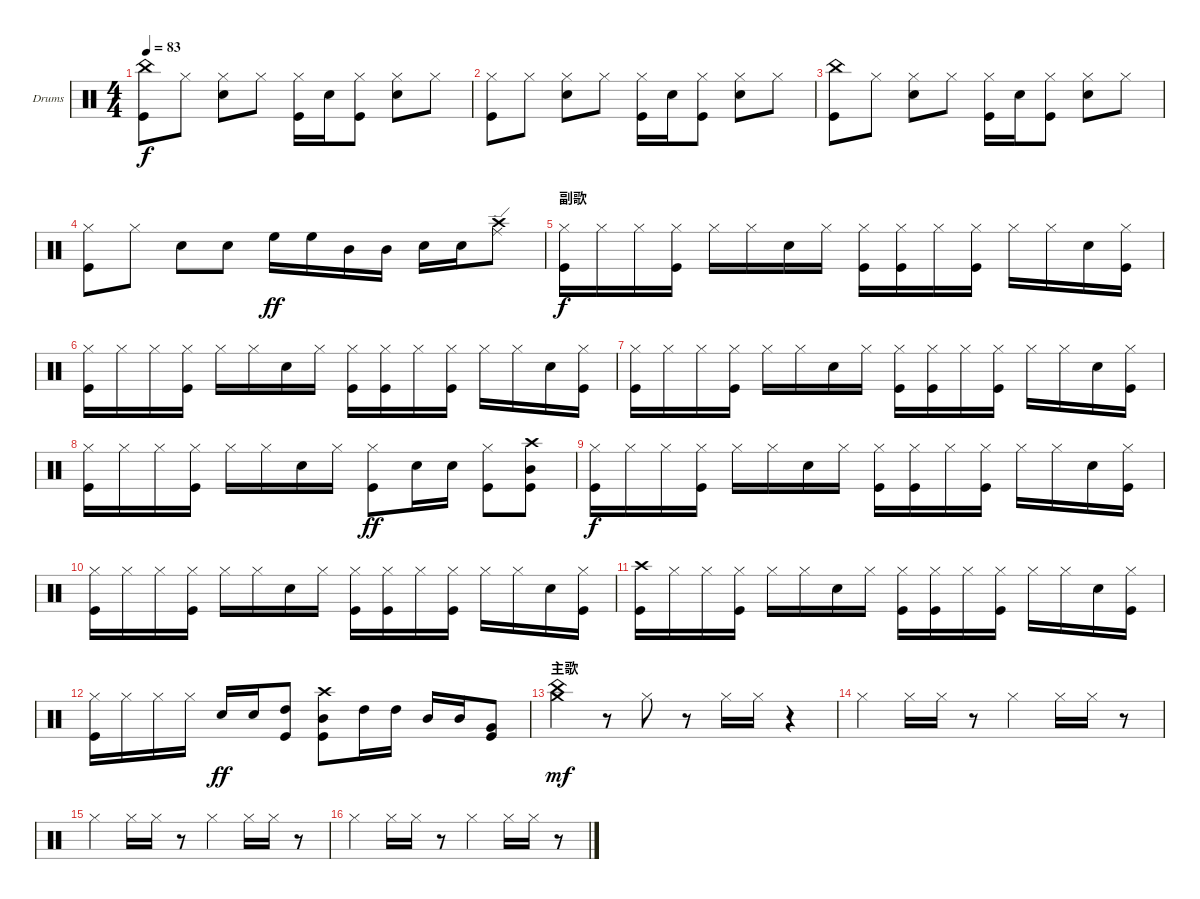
\bracketExtendMode groupsimilarinstruments
\firstSystemTrackNameOrientation horizontal
\otherSystemsTrackNameOrientation horizontal
\track ("Drumkit" "Drums") {instrument percussion}
\staff {score}
\articulation defaults
\ts (4 4)
\tempo 83
\clef neutral
\ks c
("Kick (hit)" "China (hit)").8{dy f} "Hi-Hat (closed)".8 ("Snare (hit) 2" "Hi-Hat (closed)").8 "Hi-Hat (closed)".8 ("Kick (hit)" "Hi-Hat (closed)").16 "Snare (hit) 2".16 ("Kick (hit)" "Hi-Hat (closed)").8 ("Snare (hit) 2" "Hi-Hat (closed)").8 "Hi-Hat (closed)".8 |
("Kick (hit)" "Hi-Hat (closed)").8 "Hi-Hat (closed)".8 ("Snare (hit) 2" "Hi-Hat (closed)").8 "Hi-Hat (closed)".8 ("Kick (hit)" "Hi-Hat (closed)").16 "Snare (hit) 2".16 ("Kick (hit)" "Hi-Hat (closed)").8 ("Snare (hit) 2" "Hi-Hat (closed)").8 "Hi-Hat (closed)".8 |
("Kick (hit)" "China (hit)").8 "Hi-Hat (closed)".8 ("Snare (hit) 2" "Hi-Hat (closed)").8 "Hi-Hat (closed)".8 ("Kick (hit)" "Hi-Hat (closed)").16 "Snare (hit) 2".16 ("Kick (hit)" "Hi-Hat (closed)").8 ("Snare (hit) 2" "Hi-Hat (closed)").8 "Hi-Hat (closed)".8 |
("Kick (hit)" "Hi-Hat (closed)").8 "Hi-Hat (closed)".8 "Snare (hit) 2".8 "Snare (hit) 2".8 "High Floor Tom (hit)".16{dy ff} "High Floor Tom (hit)".16 "Mid Tom (hit)".16 "Mid Tom (hit)".16 "Snare (hit) 2".16 "Snare (hit) 2".16 ("Crash high (hit)" "Ride (edge)").8 |
\section ("" "副歌")
("Kick (hit)" "Hi-Hat (closed)").16{dy f} "Hi-Hat (closed)".16 "Hi-Hat (closed)".16 ("Hi-Hat (closed)" "Kick (hit)").16 "Hi-Hat (closed)".16 "Hi-Hat (closed)".16 "Snare (hit) 2".16 "Hi-Hat (closed)".16 ("Kick (hit)" "Hi-Hat (closed)").16 ("Hi-Hat (closed)" "Kick (hit)").16 "Hi-Hat (closed)".16 ("Hi-Hat (closed)" "Kick (hit)").16 "Hi-Hat (closed)".16 "Hi-Hat (closed)".16 "Snare (hit) 2".16 ("Hi-Hat (closed)" "Kick (hit)").16 |
("Kick (hit)" "Hi-Hat (closed)").16 "Hi-Hat (closed)".16 "Hi-Hat (closed)".16 ("Hi-Hat (closed)" "Kick (hit)").16 "Hi-Hat (closed)".16 "Hi-Hat (closed)".16 "Snare (hit) 2".16 "Hi-Hat (closed)".16 ("Kick (hit)" "Hi-Hat (closed)").16 ("Hi-Hat (closed)" "Kick (hit)").16 "Hi-Hat (closed)".16 ("Hi-Hat (closed)" "Kick (hit)").16 "Hi-Hat (closed)".16 "Hi-Hat (closed)".16 "Snare (hit) 2".16 ("Hi-Hat (closed)" "Kick (hit)").16 |
("Kick (hit)" "Hi-Hat (closed)").16 "Hi-Hat (closed)".16 "Hi-Hat (closed)".16 ("Hi-Hat (closed)" "Kick (hit)").16 "Hi-Hat (closed)".16 "Hi-Hat (closed)".16 "Snare (hit) 2".16 "Hi-Hat (closed)".16 ("Kick (hit)" "Hi-Hat (closed)").16 ("Hi-Hat (closed)" "Kick (hit)").16 "Hi-Hat (closed)".16 ("Hi-Hat (closed)" "Kick (hit)").16 "Hi-Hat (closed)".16 "Hi-Hat (closed)".16 "Snare (hit) 2".16 ("Hi-Hat (closed)" "Kick (hit)").16 |
("Kick (hit)" "Hi-Hat (closed)").16 "Hi-Hat (closed)".16 "Hi-Hat (closed)".16 ("Hi-Hat (closed)" "Kick (hit)").16 "Hi-Hat (closed)".16 "Hi-Hat (closed)".16 "Snare (hit) 2".16 "Hi-Hat (closed)".16 ("Kick (hit)" "Hi-Hat (closed)").8{dy ff} "Snare (hit) 2".16 "Snare (hit) 2".16 ("Kick (hit)" "Hi-Hat (closed)").8 ("Mid Tom (hit)" "Kick (hit)" "Crash high (hit)").8 |
("Kick (hit)" "Hi-Hat (closed)").16{dy f} "Hi-Hat (closed)".16 "Hi-Hat (closed)".16 ("Hi-Hat (closed)" "Kick (hit)").16 "Hi-Hat (closed)".16 "Hi-Hat (closed)".16 "Snare (hit) 2".16 "Hi-Hat (closed)".16 ("Kick (hit)" "Hi-Hat (closed)").16 ("Hi-Hat (closed)" "Kick (hit)").16 "Hi-Hat (closed)".16 ("Hi-Hat (closed)" "Kick (hit)").16 "Hi-Hat (closed)".16 "Hi-Hat (closed)".16 "Snare (hit) 2".16 ("Hi-Hat (closed)" "Kick (hit)").16 |
("Kick (hit)" "Hi-Hat (closed)").16 "Hi-Hat (closed)".16 "Hi-Hat (closed)".16 ("Hi-Hat (closed)" "Kick (hit)").16 "Hi-Hat (closed)".16 "Hi-Hat (closed)".16 "Snare (hit) 2".16 "Hi-Hat (closed)".16 ("Kick (hit)" "Hi-Hat (closed)").16 ("Hi-Hat (closed)" "Kick (hit)").16 "Hi-Hat (closed)".16 ("Hi-Hat (closed)" "Kick (hit)").16 "Hi-Hat (closed)".16 "Hi-Hat (closed)".16 "Snare (hit) 2".16 ("Hi-Hat (closed)" "Kick (hit)").16 |
("Kick (hit)" "Crash high (hit)").16 "Hi-Hat (closed)".16 "Hi-Hat (closed)".16 ("Hi-Hat (closed)" "Kick (hit)").16 "Hi-Hat (closed)".16 "Hi-Hat (closed)".16 "Snare (hit) 2".16 "Hi-Hat (closed)".16 ("Kick (hit)" "Hi-Hat (closed)").16 ("Hi-Hat (closed)" "Kick (hit)").16 "Hi-Hat (closed)".16 ("Hi-Hat (closed)" "Kick (hit)").16 "Hi-Hat (closed)".16 "Hi-Hat (closed)".16 "Snare (hit) 2".16 ("Hi-Hat (closed)" "Kick (hit)").16 |
("Kick (hit)" "Hi-Hat (closed)").16 "Hi-Hat (closed)".16 "Hi-Hat (closed)".16 "Hi-Hat (closed)".16 "Snare (hit) 2".16{dy ff} "Snare (hit) 2".16 ("Kick (hit)" "High Tom (hit)").8 ("Mid Tom (hit)" "Kick (hit)" "Crash high (hit)").8 "High Tom (hit)".16 "High Tom (hit)".16 "Mid Tom (hit)".16 "Mid Tom (hit)".16 ("Very Low Tom (hit)" "Kick (hit)").8 |
\section ("" "主歌")
("China (hit)" "Crash medium (hit)").4{dy mf} r.8 "Hi-Hat (closed)".8 r.8 "Hi-Hat (closed)".16 "Hi-Hat (closed)".16 r.4 |
"Hi-Hat (closed)".4 "Hi-Hat (closed)".16 "Hi-Hat (closed)".16 r.8 "Hi-Hat (closed)".4 "Hi-Hat (closed)".16 "Hi-Hat (closed)".16 r.8 |
"Hi-Hat (closed)".4 "Hi-Hat (closed)".16 "Hi-Hat (closed)".16 r.8 "Hi-Hat (closed)".4 "Hi-Hat (closed)".16 "Hi-Hat (closed)".16 r.8 |
"Hi-Hat (closed)".4 "Hi-Hat (closed)".16 "Hi-Hat (closed)".16 r.8 "Hi-Hat (closed)".4 "Hi-Hat (closed)".16 "Hi-Hat (closed)".16 r.8
